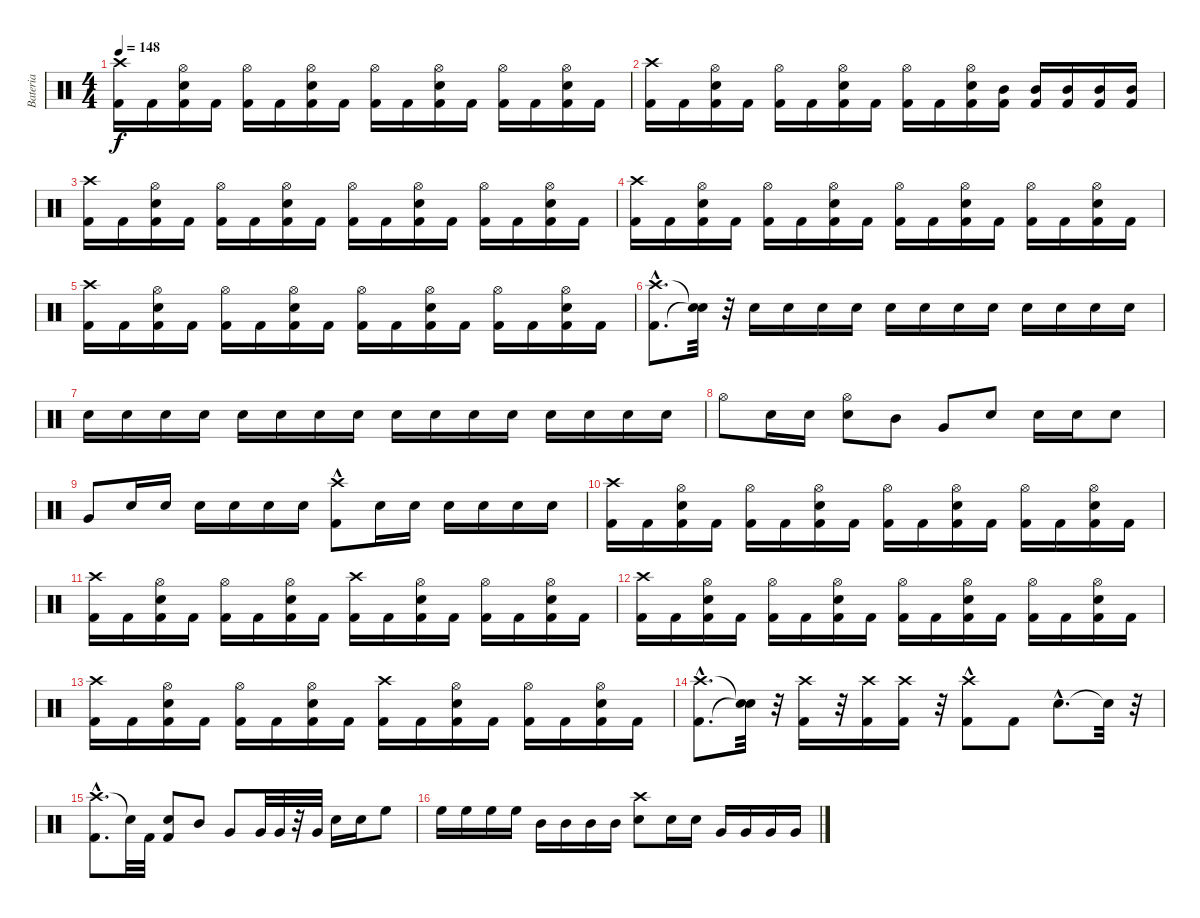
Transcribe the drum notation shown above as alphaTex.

\track ("Bateria" "Bateria") {instrument percussion}
\staff {score}
\articulation defaults
\ts (4 4)
\tempo 148
\clef neutral
\ks c
("Kick (hit) 2" "Crash high (hit)").16{dy f} "Kick (hit) 2".16 ("Kick (hit) 2" "Snare (hit) 2" "Hi-Hat (open)").16 "Kick (hit) 2".16 ("Kick (hit) 2" "Hi-Hat (open)").16 "Kick (hit) 2".16 ("Kick (hit) 2" "Snare (hit) 2" "Hi-Hat (open)").16 "Kick (hit) 2".16 ("Kick (hit) 2" "Hi-Hat (open)").16 "Kick (hit) 2".16 ("Kick (hit) 2" "Snare (hit) 2" "Hi-Hat (open)").16 "Kick (hit) 2".16 ("Kick (hit) 2" "Hi-Hat (open)").16 "Kick (hit) 2".16 ("Kick (hit) 2" "Snare (hit) 2" "Hi-Hat (open)").16 "Kick (hit) 2".16 |
("Kick (hit) 2" "Crash high (hit)").16 "Kick (hit) 2".16 ("Kick (hit) 2" "Snare (hit) 2" "Hi-Hat (open)").16 "Kick (hit) 2".16 ("Kick (hit) 2" "Hi-Hat (open)").16 "Kick (hit) 2".16 ("Kick (hit) 2" "Snare (hit) 2" "Hi-Hat (open)").16 "Kick (hit) 2".16 ("Kick (hit) 2" "Hi-Hat (open)").16 "Kick (hit) 2".16 ("Kick (hit) 2" "Hi-Hat (open)" "Snare (hit) 2").16 ("Kick (hit) 2" "Mid Tom (hit)").16 ("Kick (hit) 2" "Mid Tom (hit)").16 ("Kick (hit) 2" "Mid Tom (hit)").16 ("Kick (hit) 2" "Mid Tom (hit)").16 ("Kick (hit) 2" "Mid Tom (hit)").16 |
("Kick (hit) 2" "Crash high (hit)").16 "Kick (hit) 2".16 ("Kick (hit) 2" "Snare (hit) 2" "Hi-Hat (open)").16 "Kick (hit) 2".16 ("Kick (hit) 2" "Hi-Hat (open)").16 "Kick (hit) 2".16 ("Kick (hit) 2" "Snare (hit) 2" "Hi-Hat (open)").16 "Kick (hit) 2".16 ("Kick (hit) 2" "Hi-Hat (open)").16 "Kick (hit) 2".16 ("Kick (hit) 2" "Snare (hit) 2" "Hi-Hat (open)").16 "Kick (hit) 2".16 ("Kick (hit) 2" "Hi-Hat (open)").16 "Kick (hit) 2".16 ("Kick (hit) 2" "Snare (hit) 2" "Hi-Hat (open)").16 "Kick (hit) 2".16 |
("Kick (hit) 2" "Crash high (hit)").16 "Kick (hit) 2".16 ("Kick (hit) 2" "Snare (hit) 2" "Hi-Hat (open)").16 "Kick (hit) 2".16 ("Kick (hit) 2" "Hi-Hat (open)").16 "Kick (hit) 2".16 ("Kick (hit) 2" "Snare (hit) 2" "Hi-Hat (open)").16 "Kick (hit) 2".16 ("Kick (hit) 2" "Hi-Hat (open)").16 "Kick (hit) 2".16 ("Kick (hit) 2" "Snare (hit) 2" "Hi-Hat (open)").16 "Kick (hit) 2".16 ("Kick (hit) 2" "Hi-Hat (open)").16 "Kick (hit) 2".16 ("Kick (hit) 2" "Snare (hit) 2" "Hi-Hat (open)").16 "Kick (hit) 2".16 |
("Kick (hit) 2" "Crash high (hit)").16 "Kick (hit) 2".16 ("Kick (hit) 2" "Snare (hit) 2" "Hi-Hat (open)").16 "Kick (hit) 2".16 ("Kick (hit) 2" "Hi-Hat (open)").16 "Kick (hit) 2".16 ("Kick (hit) 2" "Snare (hit) 2" "Hi-Hat (open)").16 "Kick (hit) 2".16 ("Kick (hit) 2" "Hi-Hat (open)").16 "Kick (hit) 2".16 ("Kick (hit) 2" "Snare (hit) 2" "Hi-Hat (open)").16 "Kick (hit) 2".16 ("Kick (hit) 2" "Hi-Hat (open)").16 "Kick (hit) 2".16 ("Kick (hit) 2" "Snare (hit) 2" "Hi-Hat (open)").16 "Kick (hit) 2".16 |
("Kick (hit) 2"{hac} "Crash high (hit)"{hac}).8{d} ("Snare (hit)"{t} "Snare (hit)"{t}).32 r.32 "Snare (hit) 2".16 "Snare (hit) 2".16 "Snare (hit) 2".16 "Snare (hit) 2".16 "Snare (hit) 2".16 "Snare (hit) 2".16 "Snare (hit) 2".16 "Snare (hit) 2".16 "Snare (hit) 2".16 "Snare (hit) 2".16 "Snare (hit) 2".16 "Snare (hit) 2".16 |
"Snare (hit) 2".16 "Snare (hit) 2".16 "Snare (hit) 2".16 "Snare (hit) 2".16 "Snare (hit) 2".16 "Snare (hit) 2".16 "Snare (hit) 2".16 "Snare (hit) 2".16 "Snare (hit) 2".16 "Snare (hit) 2".16 "Snare (hit) 2".16 "Snare (hit) 2".16 "Snare (hit) 2".16 "Snare (hit) 2".16 "Snare (hit) 2".16 "Snare (hit) 2".16 |
"Hi-Hat (open)".8 "Snare (hit) 2".16 "Snare (hit) 2".16 ("Snare (hit) 2" "Hi-Hat (open)").8 "Mid Tom (hit)".8 "Very Low Tom (hit)".8 "Snare (hit) 2".8 "Snare (hit) 2".16 "Snare (hit) 2".16 "Snare (hit) 2".8 |
"Very Low Tom (hit)".8 "Snare (hit) 2".16 "Snare (hit) 2".16 "Snare (hit) 2".16 "Snare (hit) 2".16 "Snare (hit) 2".16 "Snare (hit) 2".16 ("Crash high (hit)" "Kick (hit) 2"{hac}).8 "Snare (hit) 2".16 "Snare (hit) 2".16 "Snare (hit) 2".16 "Snare (hit) 2".16 "Snare (hit) 2".16 "Snare (hit) 2".16 |
("Kick (hit) 2" "Crash high (hit)").16 "Kick (hit) 2".16 ("Kick (hit) 2" "Snare (hit) 2" "Hi-Hat (open)").16 "Kick (hit) 2".16 ("Kick (hit) 2" "Hi-Hat (open)").16 "Kick (hit) 2".16 ("Kick (hit) 2" "Snare (hit) 2" "Hi-Hat (open)").16 "Kick (hit) 2".16 ("Kick (hit) 2" "Hi-Hat (open)").16 "Kick (hit) 2".16 ("Kick (hit) 2" "Snare (hit) 2" "Hi-Hat (open)").16 "Kick (hit) 2".16 ("Kick (hit) 2" "Hi-Hat (open)").16 "Kick (hit) 2".16 ("Kick (hit) 2" "Snare (hit) 2" "Hi-Hat (open)").16 "Kick (hit) 2".16 |
("Kick (hit) 2" "Crash high (hit)").16 "Kick (hit) 2".16 ("Kick (hit) 2" "Snare (hit) 2" "Hi-Hat (open)").16 "Kick (hit) 2".16 ("Kick (hit) 2" "Hi-Hat (open)").16 "Kick (hit) 2".16 ("Kick (hit) 2" "Snare (hit) 2" "Hi-Hat (open)").16 "Kick (hit) 2".16 ("Kick (hit) 2" "Crash high (hit)").16 "Kick (hit) 2".16 ("Kick (hit) 2" "Snare (hit) 2" "Hi-Hat (open)").16 "Kick (hit) 2".16 ("Kick (hit) 2" "Hi-Hat (open)").16 "Kick (hit) 2".16 ("Kick (hit) 2" "Snare (hit) 2" "Hi-Hat (open)").16 "Kick (hit) 2".16 |
("Kick (hit) 2" "Crash high (hit)").16 "Kick (hit) 2".16 ("Kick (hit) 2" "Snare (hit) 2" "Hi-Hat (open)").16 "Kick (hit) 2".16 ("Kick (hit) 2" "Hi-Hat (open)").16 "Kick (hit) 2".16 ("Kick (hit) 2" "Snare (hit) 2" "Hi-Hat (open)").16 "Kick (hit) 2".16 ("Kick (hit) 2" "Hi-Hat (open)").16 "Kick (hit) 2".16 ("Kick (hit) 2" "Snare (hit) 2" "Hi-Hat (open)").16 "Kick (hit) 2".16 ("Kick (hit) 2" "Hi-Hat (open)").16 "Kick (hit) 2".16 ("Kick (hit) 2" "Snare (hit) 2" "Hi-Hat (open)").16 "Kick (hit) 2".16 |
("Kick (hit) 2" "Crash high (hit)").16 "Kick (hit) 2".16 ("Kick (hit) 2" "Snare (hit) 2" "Hi-Hat (open)").16 "Kick (hit) 2".16 ("Kick (hit) 2" "Hi-Hat (open)").16 "Kick (hit) 2".16 ("Kick (hit) 2" "Snare (hit) 2" "Hi-Hat (open)").16 "Kick (hit) 2".16 ("Kick (hit) 2" "Crash high (hit)").16 "Kick (hit) 2".16 ("Kick (hit) 2" "Snare (hit) 2" "Hi-Hat (open)").16 "Kick (hit) 2".16 ("Kick (hit) 2" "Hi-Hat (open)").16 "Kick (hit) 2".16 ("Kick (hit) 2" "Snare (hit) 2" "Hi-Hat (open)").16 "Kick (hit) 2".16 |
("Kick (hit) 2"{hac} "Crash high (hit)"{hac}).8{d} ("Snare (hit)"{t} "Snare (hit)"{t}).32 r.32 ("Kick (hit) 2" "Crash high (hit)").16 r.32 ("Kick (hit) 2" "Crash high (hit)").16 ("Kick (hit) 2" "Crash high (hit)").16 r.32 ("Kick (hit) 2" "Crash high (hit)"{hac}).8 "Kick (hit) 2".8 "Snare (hit) 2"{hac}.8{d} "Snare (hit)"{t}.32 r.32 |
("Crash high (hit)"{hac} "Kick (hit) 2").8{d} "Snare (hit)"{t}.32 "Kick (hit) 2".32 ("Kick (hit) 2" "Snare (hit) 2").8 "Mid Tom (hit)".8 "Very Low Tom (hit)".8 "Very Low Tom (hit)".32 "Very Low Tom (hit)".32 r.32 "Very Low Tom (hit)".32 "Snare (hit) 2".16 "Snare (hit) 2".16 "High Floor Tom (hit)".8 |
"High Floor Tom (hit)".16 "High Floor Tom (hit)".16 "High Floor Tom (hit)".16 "High Floor Tom (hit)".16 "Mid Tom (hit)".16 "Mid Tom (hit)".16 "Mid Tom (hit)".16 "Mid Tom (hit)".16 ("Snare (hit) 2" "Crash high (hit)").8 "Snare (hit) 2".16 "Snare (hit) 2".16 "Very Low Tom (hit)".16 "Very Low Tom (hit)".16 "Very Low Tom (hit)".16 "Very Low Tom (hit)".16
